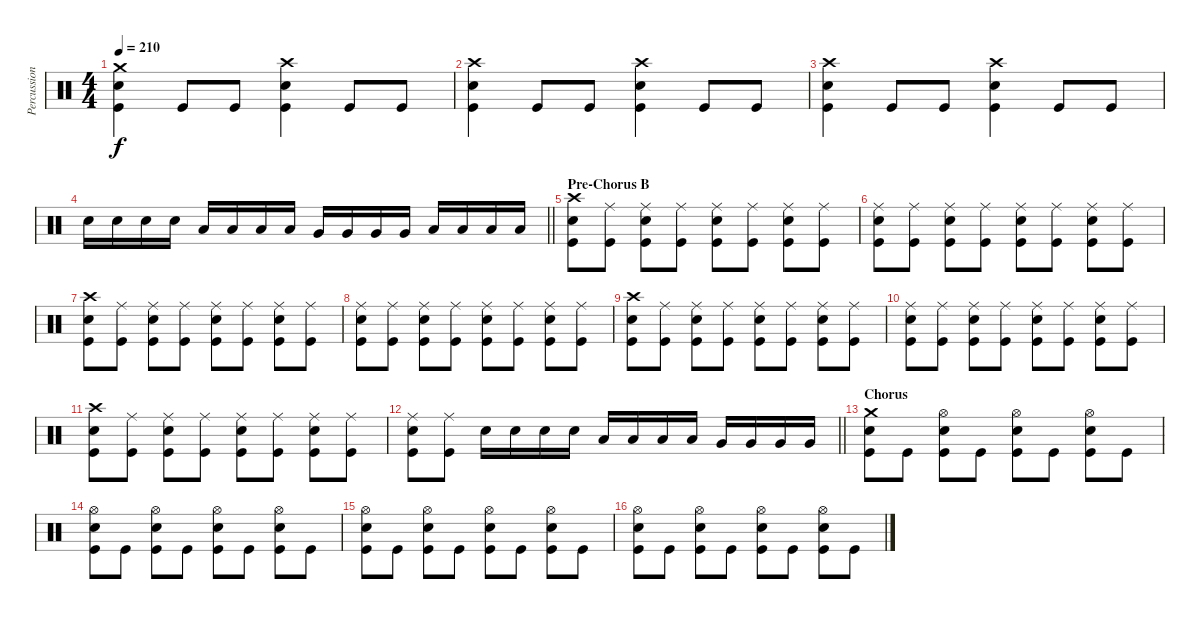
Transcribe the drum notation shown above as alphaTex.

\track ("Percussion" "Percussion") {instrument percussion}
\staff {score}
\articulation defaults
\ts (4 4)
\tempo 210
\clef neutral
\ks c
("Crash medium (hit)" "Electric Snare (hit)" "Kick (hit)").4{dy f} "Kick (hit)".8 "Kick (hit)".8 ("Crash high (hit)" "Electric Snare (hit)" "Kick (hit)").4 "Kick (hit)".8 "Kick (hit)".8 |
("Crash high (hit)" "Electric Snare (hit)" "Kick (hit)").4 "Kick (hit)".8 "Kick (hit)".8 ("Crash high (hit)" "Electric Snare (hit)" "Kick (hit)").4 "Kick (hit)".8 "Kick (hit)".8 |
("Crash high (hit)" "Electric Snare (hit)" "Kick (hit)").4 "Kick (hit)".8 "Kick (hit)".8 ("Crash high (hit)" "Electric Snare (hit)" "Kick (hit)").4 "Kick (hit)".8 "Kick (hit)".8 |
\barLineRight lightlight "Electric Snare (hit)".16 "Electric Snare (hit)".16 "Electric Snare (hit)".16 "Electric Snare (hit)".16 "Low Tom (hit)".16 "Low Tom (hit)".16 "Low Tom (hit)".16 "Low Tom (hit)".16 "Very Low Tom (hit)".16 "Very Low Tom (hit)".16 "Very Low Tom (hit)".16 "Very Low Tom (hit)".16 "Low Floor Tom (hit)".16 "Low Floor Tom (hit)".16 "Low Floor Tom (hit)".16 "Low Floor Tom (hit)".16
|
\section ("" "Pre-Chorus B")
("Crash high (hit)" "Electric Snare (hit)" "Kick (hit)").8 ("Ride (middle)" "Kick (hit)").8 ("Ride (middle)" "Electric Snare (hit)" "Kick (hit)").8 ("Ride (middle)" "Kick (hit)").8 ("Ride (middle)" "Electric Snare (hit)" "Kick (hit)").8 ("Ride (middle)" "Kick (hit)").8 ("Ride (middle)" "Electric Snare (hit)" "Kick (hit)").8 ("Ride (middle)" "Kick (hit)").8 |
("Ride (middle)" "Electric Snare (hit)" "Kick (hit)").8 ("Ride (middle)" "Kick (hit)").8 ("Ride (middle)" "Electric Snare (hit)" "Kick (hit)").8 ("Ride (middle)" "Kick (hit)").8 ("Ride (middle)" "Electric Snare (hit)" "Kick (hit)").8 ("Ride (middle)" "Kick (hit)").8 ("Ride (middle)" "Electric Snare (hit)" "Kick (hit)").8 ("Ride (middle)" "Kick (hit)").8 |
("Crash high (hit)" "Electric Snare (hit)" "Kick (hit)").8 ("Ride (middle)" "Kick (hit)").8 ("Ride (middle)" "Electric Snare (hit)" "Kick (hit)").8 ("Ride (middle)" "Kick (hit)").8 ("Ride (middle)" "Electric Snare (hit)" "Kick (hit)").8 ("Ride (middle)" "Kick (hit)").8 ("Ride (middle)" "Electric Snare (hit)" "Kick (hit)").8 ("Ride (middle)" "Kick (hit)").8 |
("Ride (middle)" "Electric Snare (hit)" "Kick (hit)").8 ("Ride (middle)" "Kick (hit)").8 ("Ride (middle)" "Electric Snare (hit)" "Kick (hit)").8 ("Ride (middle)" "Kick (hit)").8 ("Ride (middle)" "Electric Snare (hit)" "Kick (hit)").8 ("Ride (middle)" "Kick (hit)").8 ("Ride (middle)" "Electric Snare (hit)" "Kick (hit)").8 ("Ride (middle)" "Kick (hit)").8 |
("Crash high (hit)" "Electric Snare (hit)" "Kick (hit)").8 ("Ride (middle)" "Kick (hit)").8 ("Ride (middle)" "Electric Snare (hit)" "Kick (hit)").8 ("Ride (middle)" "Kick (hit)").8 ("Ride (middle)" "Electric Snare (hit)" "Kick (hit)").8 ("Ride (middle)" "Kick (hit)").8 ("Ride (middle)" "Electric Snare (hit)" "Kick (hit)").8 ("Ride (middle)" "Kick (hit)").8 |
("Ride (middle)" "Electric Snare (hit)" "Kick (hit)").8 ("Ride (middle)" "Kick (hit)").8 ("Ride (middle)" "Electric Snare (hit)" "Kick (hit)").8 ("Ride (middle)" "Kick (hit)").8 ("Ride (middle)" "Electric Snare (hit)" "Kick (hit)").8 ("Ride (middle)" "Kick (hit)").8 ("Ride (middle)" "Electric Snare (hit)" "Kick (hit)").8 ("Ride (middle)" "Kick (hit)").8 |
("Crash high (hit)" "Electric Snare (hit)" "Kick (hit)").8 ("Ride (middle)" "Kick (hit)").8 ("Ride (middle)" "Electric Snare (hit)" "Kick (hit)").8 ("Ride (middle)" "Kick (hit)").8 ("Ride (middle)" "Electric Snare (hit)" "Kick (hit)").8 ("Ride (middle)" "Kick (hit)").8 ("Ride (middle)" "Electric Snare (hit)" "Kick (hit)").8 ("Ride (middle)" "Kick (hit)").8 |
\barLineRight lightlight
("Ride (middle)" "Electric Snare (hit)" "Kick (hit)").8 ("Ride (middle)" "Kick (hit)").8 "Electric Snare (hit)".16 "Electric Snare (hit)".16 "Electric Snare (hit)".16 "Electric Snare (hit)".16 "Low Tom (hit)".16 "Low Tom (hit)".16 "Low Tom (hit)".16 "Low Tom (hit)".16 "Very Low Tom (hit)".16 "Very Low Tom (hit)".16 "Very Low Tom (hit)".16 "Very Low Tom (hit)".16 |
\section ("" "Chorus")
("Crash medium (hit)" "Electric Snare (hit)" "Kick (hit)").8 "Kick (hit)".8 ("Hi-Hat (open)" "Electric Snare (hit)" "Kick (hit)").8 "Kick (hit)".8 ("Hi-Hat (open)" "Electric Snare (hit)" "Kick (hit)").8 "Kick (hit)".8 ("Hi-Hat (open)" "Electric Snare (hit)" "Kick (hit)").8 "Kick (hit)".8 |
("Hi-Hat (open)" "Electric Snare (hit)" "Kick (hit)").8 "Kick (hit)".8 ("Hi-Hat (open)" "Electric Snare (hit)" "Kick (hit)").8 "Kick (hit)".8 ("Hi-Hat (open)" "Electric Snare (hit)" "Kick (hit)").8 "Kick (hit)".8 ("Hi-Hat (open)" "Electric Snare (hit)" "Kick (hit)").8 "Kick (hit)".8 |
("Hi-Hat (open)" "Electric Snare (hit)" "Kick (hit)").8 "Kick (hit)".8 ("Hi-Hat (open)" "Electric Snare (hit)" "Kick (hit)").8 "Kick (hit)".8 ("Hi-Hat (open)" "Electric Snare (hit)" "Kick (hit)").8 "Kick (hit)".8 ("Hi-Hat (open)" "Electric Snare (hit)" "Kick (hit)").8 "Kick (hit)".8 |
("Hi-Hat (open)" "Electric Snare (hit)" "Kick (hit)").8 "Kick (hit)".8 ("Hi-Hat (open)" "Electric Snare (hit)" "Kick (hit)").8 "Kick (hit)".8 ("Hi-Hat (open)" "Electric Snare (hit)" "Kick (hit)").8 "Kick (hit)".8 ("Hi-Hat (open)" "Electric Snare (hit)" "Kick (hit)").8 "Kick (hit)".8
